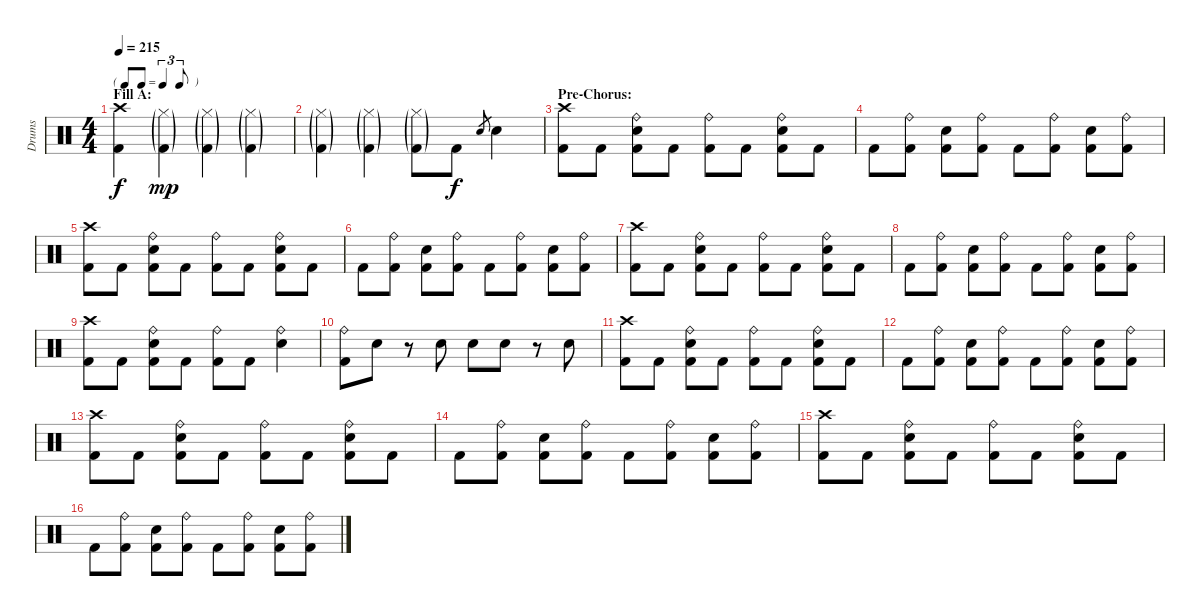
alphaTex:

\track ("Drums" "Drums") {instrument percussion}
\staff {score}
\articulation defaults
\ts (4 4)
\tf triplet8th
\section ("" "Fill A:")
\tempo 215
\clef neutral
\ks c
("Crash high (hit)" "Kick (hit) 2").4{dy f} ("Hi-Hat (closed)"{g} "Kick (hit) 2"{g}).4{dy mp} ("Hi-Hat (closed)"{g} "Kick (hit) 2"{g}).4 ("Hi-Hat (closed)"{g} "Kick (hit) 2"{g}).4 |
("Hi-Hat (closed)"{g} "Kick (hit) 2"{g}).4 ("Hi-Hat (closed)"{g} "Kick (hit) 2"{g}).4 ("Hi-Hat (closed)"{g} "Kick (hit) 2"{g}).8 "Kick (hit) 2".8{dy f} "Electric Snare (hit)".8{gr} "Electric Snare (hit)".4 |
\section ("" "Pre-Chorus:")
("Crash high (hit)" "Kick (hit) 2").8 "Kick (hit) 2".8 ("Ride (bell)" "Electric Snare (hit)" "Kick (hit) 2").8 "Kick (hit) 2".8 ("Ride (bell)" "Kick (hit) 2").8 "Kick (hit) 2".8 ("Ride (bell)" "Electric Snare (hit)" "Kick (hit) 2").8 "Kick (hit) 2".8 |
"Kick (hit) 2".8 ("Ride (bell)" "Kick (hit) 2").8 ("Electric Snare (hit)" "Kick (hit) 2").8 ("Ride (bell)" "Kick (hit) 2").8 "Kick (hit) 2".8 ("Ride (bell)" "Kick (hit) 2").8 ("Electric Snare (hit)" "Kick (hit) 2").8 ("Ride (bell)" "Kick (hit) 2").8 |
("Crash high (hit)" "Kick (hit) 2").8 "Kick (hit) 2".8 ("Ride (bell)" "Electric Snare (hit)" "Kick (hit) 2").8 "Kick (hit) 2".8 ("Ride (bell)" "Kick (hit) 2").8 "Kick (hit) 2".8 ("Ride (bell)" "Electric Snare (hit)" "Kick (hit) 2").8 "Kick (hit) 2".8 |
"Kick (hit) 2".8 ("Ride (bell)" "Kick (hit) 2").8 ("Electric Snare (hit)" "Kick (hit) 2").8 ("Ride (bell)" "Kick (hit) 2").8 "Kick (hit) 2".8 ("Ride (bell)" "Kick (hit) 2").8 ("Electric Snare (hit)" "Kick (hit) 2").8 ("Ride (bell)" "Kick (hit) 2").8 |
("Crash high (hit)" "Kick (hit) 2").8 "Kick (hit) 2".8 ("Ride (bell)" "Electric Snare (hit)" "Kick (hit) 2").8 "Kick (hit) 2".8 ("Ride (bell)" "Kick (hit) 2").8 "Kick (hit) 2".8 ("Ride (bell)" "Electric Snare (hit)" "Kick (hit) 2").8 "Kick (hit) 2".8 |
"Kick (hit) 2".8 ("Ride (bell)" "Kick (hit) 2").8 ("Electric Snare (hit)" "Kick (hit) 2").8 ("Ride (bell)" "Kick (hit) 2").8 "Kick (hit) 2".8 ("Ride (bell)" "Kick (hit) 2").8 ("Electric Snare (hit)" "Kick (hit) 2").8 ("Ride (bell)" "Kick (hit) 2").8 |
("Crash high (hit)" "Kick (hit) 2").8 "Kick (hit) 2".8 ("Ride (bell)" "Electric Snare (hit)" "Kick (hit) 2").8 "Kick (hit) 2".8 ("Ride (bell)" "Kick (hit) 2").8 "Kick (hit) 2".8 ("Ride (bell)" "Electric Snare (hit)").4 |
("Ride (bell)" "Kick (hit) 2").8 "Electric Snare (hit)".8 r.8 "Electric Snare (hit)".8 "Electric Snare (hit)".8 "Electric Snare (hit)".8 r.8 "Electric Snare (hit)".8 |
("Crash high (hit)" "Kick (hit) 2").8 "Kick (hit) 2".8 ("Ride (bell)" "Electric Snare (hit)" "Kick (hit) 2").8 "Kick (hit) 2".8 ("Ride (bell)" "Kick (hit) 2").8 "Kick (hit) 2".8 ("Ride (bell)" "Electric Snare (hit)" "Kick (hit) 2").8 "Kick (hit) 2".8 |
"Kick (hit) 2".8 ("Ride (bell)" "Kick (hit) 2").8 ("Electric Snare (hit)" "Kick (hit) 2").8 ("Ride (bell)" "Kick (hit) 2").8 "Kick (hit) 2".8 ("Ride (bell)" "Kick (hit) 2").8 ("Electric Snare (hit)" "Kick (hit) 2").8 ("Ride (bell)" "Kick (hit) 2").8 |
("Crash high (hit)" "Kick (hit) 2").8 "Kick (hit) 2".8 ("Ride (bell)" "Electric Snare (hit)" "Kick (hit) 2").8 "Kick (hit) 2".8 ("Ride (bell)" "Kick (hit) 2").8 "Kick (hit) 2".8 ("Ride (bell)" "Electric Snare (hit)" "Kick (hit) 2").8 "Kick (hit) 2".8 |
"Kick (hit) 2".8 ("Ride (bell)" "Kick (hit) 2").8 ("Electric Snare (hit)" "Kick (hit) 2").8 ("Ride (bell)" "Kick (hit) 2").8 "Kick (hit) 2".8 ("Ride (bell)" "Kick (hit) 2").8 ("Electric Snare (hit)" "Kick (hit) 2").8 ("Ride (bell)" "Kick (hit) 2").8 |
("Crash high (hit)" "Kick (hit) 2").8 "Kick (hit) 2".8 ("Ride (bell)" "Electric Snare (hit)" "Kick (hit) 2").8 "Kick (hit) 2".8 ("Ride (bell)" "Kick (hit) 2").8 "Kick (hit) 2".8 ("Ride (bell)" "Electric Snare (hit)" "Kick (hit) 2").8 "Kick (hit) 2".8 |
"Kick (hit) 2".8 ("Ride (bell)" "Kick (hit) 2").8 ("Electric Snare (hit)" "Kick (hit) 2").8 ("Ride (bell)" "Kick (hit) 2").8 "Kick (hit) 2".8 ("Ride (bell)" "Kick (hit) 2").8 ("Electric Snare (hit)" "Kick (hit) 2").8 ("Ride (bell)" "Kick (hit) 2").8
